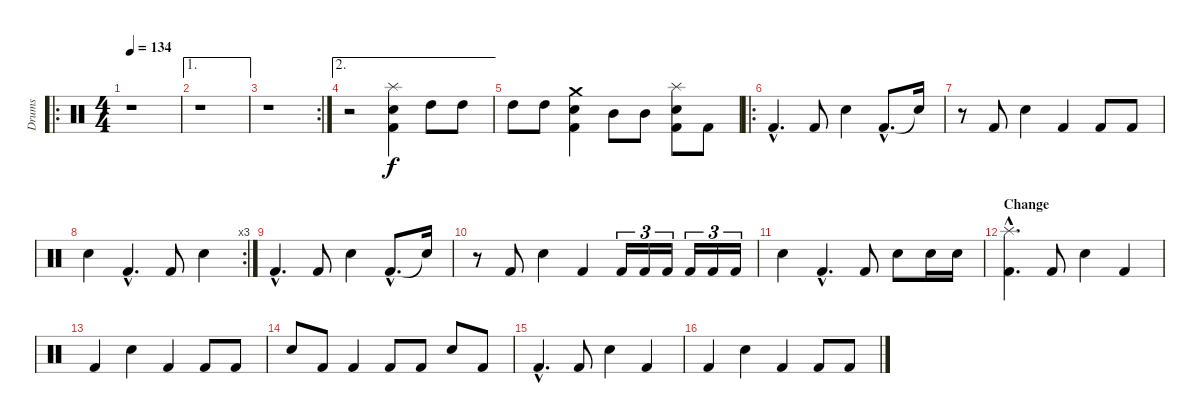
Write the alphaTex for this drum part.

\track ("Drums" "Drums") {instrument percussion}
\staff {score}
\articulation defaults
\ro
\ts (4 4)
\tempo 134
\clef neutral
\ks c
r.1{dy f} |
\ae 1
r.1 |
\rc 2
r.1 |
\ae 2
r.2 ("Kick (hit) 2" "Snare (hit) 2" "Splash (hit)").4 "High Tom (hit)".8 "High Tom (hit)".8 |
"High Tom (hit)".8 "High Tom (hit)".8 ("Kick (hit) 2" "Snare (hit) 2" "Crash medium (hit)").4 "Mid Tom (hit)".8 "Mid Tom (hit)".8 ("Kick (hit) 2" "Snare (hit) 2" "Splash (hit)").8 "Kick (hit) 2".8 |
\ro "Kick (hit) 2"{hac}.4{d} "Kick (hit) 2".8 "Snare (hit) 2".4 "Kick (hit) 2"{hac}.8{d} "Snare (hit)"{t}.16
|
r.8 "Kick (hit) 2".8 "Snare (hit) 2".4 "Kick (hit) 2".4 "Kick (hit) 2".8 "Kick (hit) 2".8 |
\rc 3 "Snare (hit) 2".4 "Kick (hit) 2"{hac}.4{d} "Kick (hit) 2".8 "Snare (hit) 2".4
|
"Kick (hit) 2"{hac}.4{d} "Kick (hit) 2".8 "Snare (hit) 2".4 "Kick (hit) 2"{hac}.8{d} "Snare (hit)"{t}.16 |
r.8 "Kick (hit) 2".8 "Snare (hit) 2".4 "Kick (hit) 2".4 "Kick (hit) 2".16{tu (3 2)} "Kick (hit) 2".16{tu (3 2)} "Kick (hit) 2".16{tu (3 2)} "Kick (hit) 2".16{tu (3 2)} "Kick (hit) 2".16{tu (3 2)} "Kick (hit) 2".16{tu (3 2)} |
"Snare (hit) 2".4 "Kick (hit) 2"{hac}.4{d} "Kick (hit) 2".8 "Snare (hit) 2".8 "Snare (hit) 2".16 "Snare (hit) 2".16 |
\section ("" "Change")
("Kick (hit) 2"{hac} "Splash (hit)"{hac}).4{d} "Kick (hit) 2".8 "Snare (hit) 2".4 "Kick (hit) 2".4 |
"Kick (hit) 2".4 "Snare (hit) 2".4 "Kick (hit) 2".4 "Kick (hit) 2".8 "Kick (hit) 2".8 |
"Snare (hit) 2".8 "Kick (hit) 2".8 "Kick (hit) 2".4 "Kick (hit) 2".8 "Kick (hit) 2".8 "Snare (hit) 2".8 "Kick (hit) 2".8 |
"Kick (hit) 2"{hac}.4{d} "Kick (hit) 2".8 "Snare (hit) 2".4 "Kick (hit) 2".4 |
"Kick (hit) 2".4 "Snare (hit) 2".4 "Kick (hit) 2".4 "Kick (hit) 2".8 "Kick (hit) 2".8
